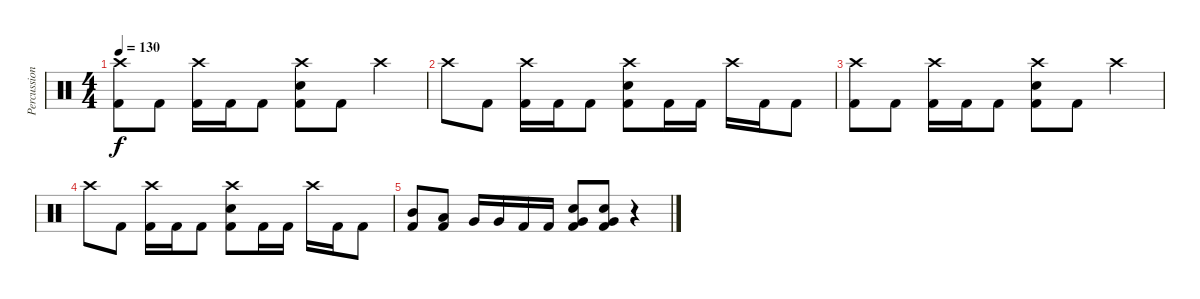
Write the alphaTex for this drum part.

\track ("Percussion" "Percussion") {instrument percussion}
\staff {score}
\articulation defaults
\ts (4 4)
\tempo 130
\clef neutral
\ks c
("Crash high (hit)" "Kick (hit) 2").8{dy f} "Kick (hit) 2".8 ("Crash high (hit)" "Kick (hit) 2").16 "Kick (hit) 2".16 "Kick (hit) 2".8 ("Crash high (hit)" "Electric Snare (hit)" "Kick (hit) 2").8 "Kick (hit) 2".8 "Crash high (hit)".4 |
"Crash high (hit)".8 "Kick (hit) 2".8 ("Crash high (hit)" "Kick (hit) 2").16 "Kick (hit) 2".16 "Kick (hit) 2".8 ("Crash high (hit)" "Electric Snare (hit)" "Kick (hit) 2").8 "Kick (hit) 2".16 "Kick (hit) 2".16 "Crash high (hit)".16 "Kick (hit) 2".16 "Kick (hit) 2".8 |
("Crash high (hit)" "Kick (hit) 2").8 "Kick (hit) 2".8 ("Crash high (hit)" "Kick (hit) 2").16 "Kick (hit) 2".16 "Kick (hit) 2".8 ("Crash high (hit)" "Electric Snare (hit)" "Kick (hit) 2").8 "Kick (hit) 2".8 "Crash high (hit)".4 |
"Crash high (hit)".8 "Kick (hit) 2".8 ("Crash high (hit)" "Kick (hit) 2").16 "Kick (hit) 2".16 "Kick (hit) 2".8 ("Crash high (hit)" "Electric Snare (hit)" "Kick (hit) 2").8 "Kick (hit) 2".16 "Kick (hit) 2".16 "Crash high (hit)".16 "Kick (hit) 2".16 "Kick (hit) 2".8 |
("Mid Tom (hit)" "Kick (hit) 2").8 ("Low Tom (hit)" "Kick (hit) 2").8 "Very Low Tom (hit)".16 "Very Low Tom (hit)".16 "Kick (hit) 2".16 "Kick (hit) 2".16 ("Electric Snare (hit)" "Very Low Tom (hit)" "Kick (hit) 2").8 ("Electric Snare (hit)" "Very Low Tom (hit)" "Kick (hit) 2").8 r.4
